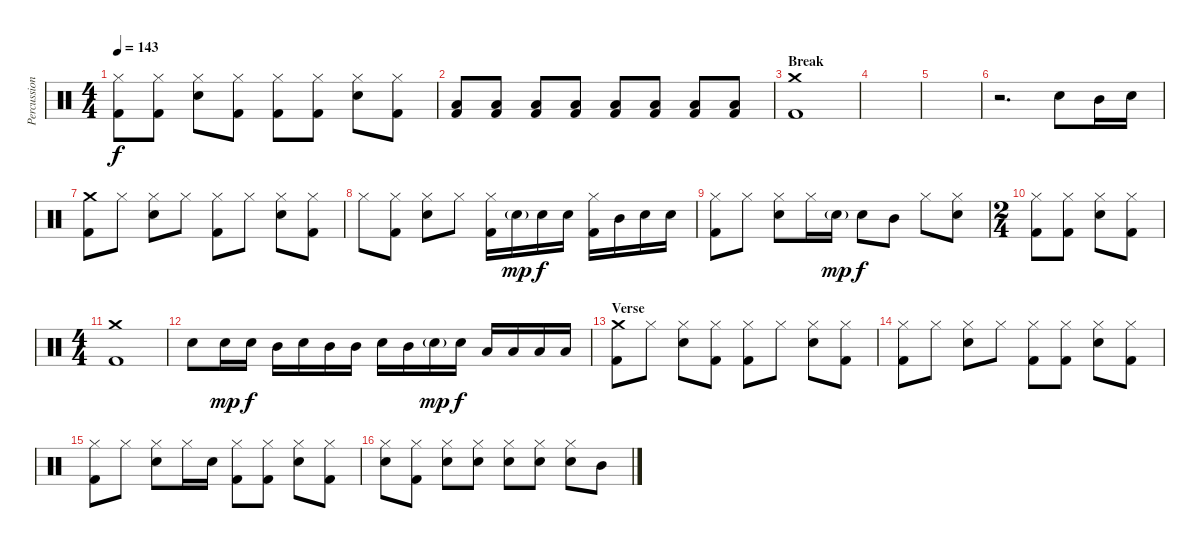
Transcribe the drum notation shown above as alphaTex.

\track ("Percussion" "Percussion") {instrument percussion}
\staff {score}
\articulation defaults
\ts (4 4)
\tempo 143
\clef neutral
\ks c
("Hi-Hat (closed)" "Kick (hit) 2").8{dy f} ("Hi-Hat (closed)" "Kick (hit) 2").8 ("Hi-Hat (closed)" "Electric Snare (hit)").8 ("Hi-Hat (closed)" "Kick (hit) 2").8 ("Hi-Hat (closed)" "Kick (hit) 2").8 ("Hi-Hat (closed)" "Kick (hit) 2").8 ("Hi-Hat (closed)" "Electric Snare (hit)").8 ("Hi-Hat (closed)" "Kick (hit) 2").8 |
("Low Floor Tom (hit)" "Kick (hit) 2").8 ("Low Floor Tom (hit)" "Kick (hit) 2").8 ("Low Floor Tom (hit)" "Kick (hit) 2").8 ("Low Floor Tom (hit)" "Kick (hit) 2").8 ("Low Floor Tom (hit)" "Kick (hit) 2").8 ("Low Floor Tom (hit)" "Kick (hit) 2").8 ("Low Floor Tom (hit)" "Kick (hit) 2").8 ("Low Floor Tom (hit)" "Kick (hit) 2").8 |
\section ("" "Break")
("Crash medium (hit)" "Kick (hit) 2").1 |
|
|
r.2{d} "Electric Snare (hit)".8 "Mid Tom (hit)".16 "Electric Snare (hit)".16 |
("Crash medium (hit)" "Kick (hit) 2").8 "Hi-Hat (closed)".8 ("Hi-Hat (closed)" "Electric Snare (hit)").8 "Hi-Hat (closed)".8 ("Hi-Hat (closed)" "Kick (hit) 2").8 "Hi-Hat (closed)".8 ("Hi-Hat (closed)" "Electric Snare (hit)").8 ("Hi-Hat (closed)" "Kick (hit) 2").8 |
"Hi-Hat (closed)".8 ("Hi-Hat (closed)" "Kick (hit) 2").8 ("Hi-Hat (closed)" "Electric Snare (hit)").8 "Hi-Hat (closed)".8 ("Hi-Hat (closed)" "Kick (hit) 2").16 "Electric Snare (hit)"{g}.16{dy mp} "Electric Snare (hit)".16{dy f} "Electric Snare (hit)".16 ("Hi-Hat (closed)" "Kick (hit) 2").16 "Mid Tom (hit)".16 "Electric Snare (hit)".16 "Electric Snare (hit)".16 |
("Hi-Hat (closed)" "Kick (hit) 2").8 "Hi-Hat (closed)".8 ("Hi-Hat (closed)" "Electric Snare (hit)").8 "Hi-Hat (closed)".16 "Electric Snare (hit)"{g}.16{dy mp} "Electric Snare (hit)".8{dy f} "Mid Tom (hit)".8 "Hi-Hat (closed)".8 ("Hi-Hat (closed)" "Electric Snare (hit)").8 |
\ts (2 4)
("Hi-Hat (closed)" "Kick (hit) 2").8 ("Hi-Hat (closed)" "Kick (hit) 2").8 ("Hi-Hat (closed)" "Electric Snare (hit)").8 ("Hi-Hat (closed)" "Kick (hit) 2").8 |
\ts (4 4)
("Crash medium (hit)" "Kick (hit) 2").1 |
"Electric Snare (hit)".8 "Electric Snare (hit)".16{dy mp} "Electric Snare (hit)".16{dy f} "Mid Tom (hit)".16 "Electric Snare (hit)".16 "Mid Tom (hit)".16 "Mid Tom (hit)".16 "Electric Snare (hit)".16 "Mid Tom (hit)".16 "Electric Snare (hit)"{g}.16{dy mp} "Electric Snare (hit)".16{dy f} "Low Tom (hit)".16 "Low Tom (hit)".16 "Low Floor Tom (hit)".16 "Low Floor Tom (hit)".16 |
\section ("" "Verse")
("Crash medium (hit)" "Kick (hit) 2").8 "Hi-Hat (closed)".8 ("Hi-Hat (closed)" "Electric Snare (hit)").8 ("Hi-Hat (closed)" "Kick (hit) 2").8 ("Hi-Hat (closed)" "Kick (hit) 2").8 "Hi-Hat (closed)".8 ("Hi-Hat (closed)" "Electric Snare (hit)").8 ("Hi-Hat (closed)" "Kick (hit) 2").8 |
("Hi-Hat (closed)" "Kick (hit) 2").8 "Hi-Hat (closed)".8 ("Hi-Hat (closed)" "Electric Snare (hit)").8 "Hi-Hat (closed)".8 ("Hi-Hat (closed)" "Kick (hit) 2").8 ("Hi-Hat (closed)" "Kick (hit) 2").8 ("Hi-Hat (closed)" "Electric Snare (hit)").8 ("Hi-Hat (closed)" "Kick (hit) 2").8 |
("Hi-Hat (closed)" "Kick (hit) 2").8 "Hi-Hat (closed)".8 ("Hi-Hat (closed)" "Electric Snare (hit)").8 "Hi-Hat (closed)".16 "Electric Snare (hit)".16 ("Hi-Hat (closed)" "Kick (hit) 2").8 ("Hi-Hat (closed)" "Kick (hit) 2").8 ("Hi-Hat (closed)" "Electric Snare (hit)").8 ("Hi-Hat (closed)" "Kick (hit) 2").8 |
("Hi-Hat (closed)" "Electric Snare (hit)").8 ("Hi-Hat (closed)" "Kick (hit) 2").8 ("Hi-Hat (closed)" "Electric Snare (hit)").8 ("Hi-Hat (closed)" "Electric Snare (hit)").8 ("Hi-Hat (closed)" "Electric Snare (hit)").8 ("Hi-Hat (closed)" "Electric Snare (hit)").8 ("Hi-Hat (closed)" "Electric Snare (hit)").8 "Mid Tom (hit)".8
